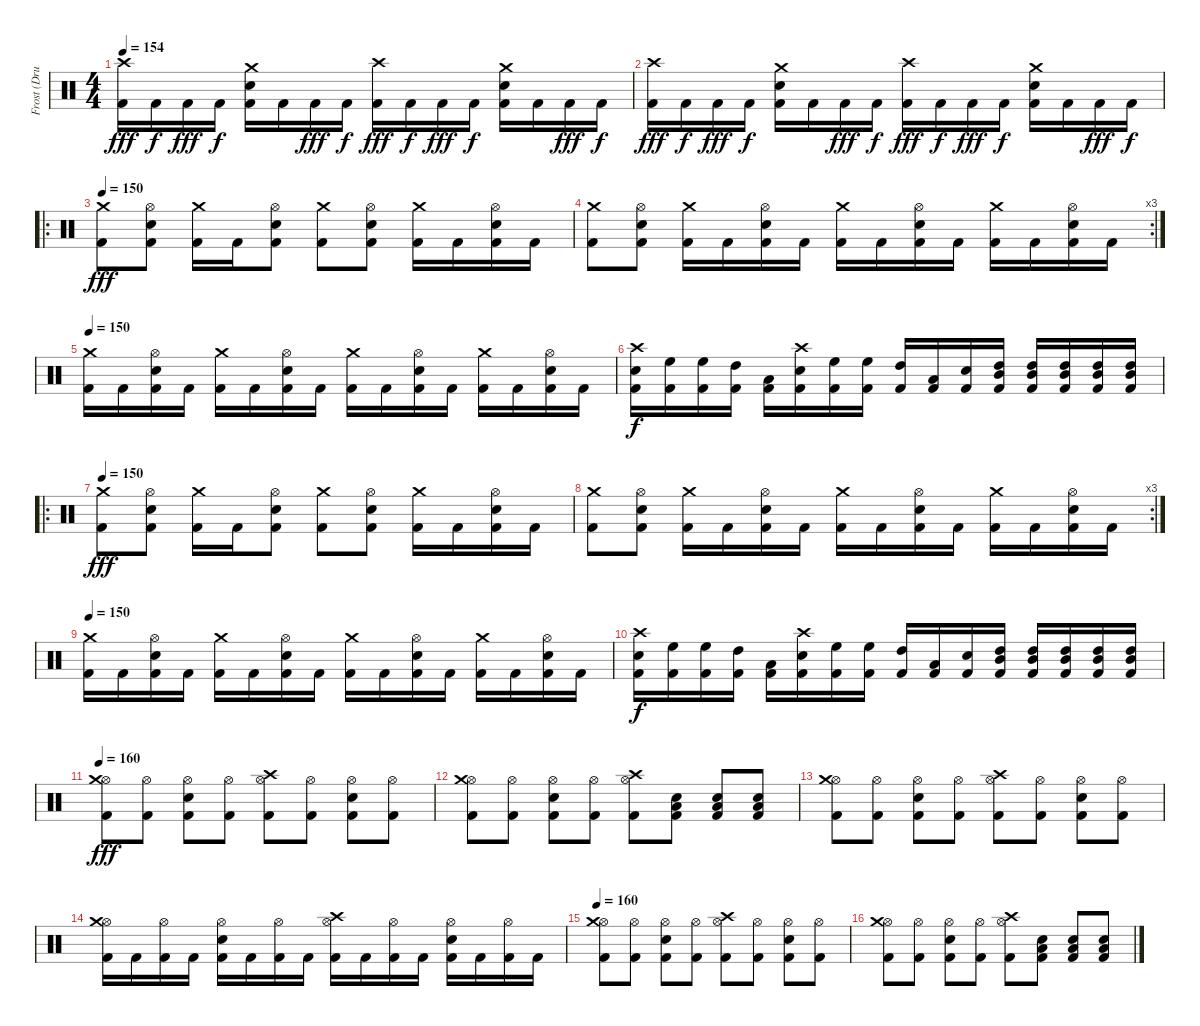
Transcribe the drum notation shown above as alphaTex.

\track ("Frost (Drums)" "Frost (Dru") {instrument percussion}
\staff {score}
\articulation defaults
\ts (4 4)
\tempo 154
\clef neutral
\ks c
("Kick (hit) 2" "Crash high (hit)").16{dy fff} "Kick (hit) 2".16{dy f} "Kick (hit) 2".16{dy fff} "Kick (hit) 2".16{dy f} ("Kick (hit) 2" "Snare (hit) 2" "Crash medium (hit)").16 "Kick (hit) 2".16 "Kick (hit) 2".16{dy fff} "Kick (hit) 2".16{dy f} ("Kick (hit) 2" "Crash high (hit)").16{dy fff} "Kick (hit) 2".16{dy f} "Kick (hit) 2".16{dy fff} "Kick (hit) 2".16{dy f} ("Kick (hit) 2" "Snare (hit) 2" "Crash medium (hit)").16 "Kick (hit) 2".16 "Kick (hit) 2".16{dy fff} "Kick (hit) 2".16{dy f} |
("Kick (hit) 2" "Crash high (hit)").16{dy fff} "Kick (hit) 2".16{dy f} "Kick (hit) 2".16{dy fff} "Kick (hit) 2".16{dy f} ("Kick (hit) 2" "Snare (hit) 2" "Crash medium (hit)").16 "Kick (hit) 2".16 "Kick (hit) 2".16{dy fff} "Kick (hit) 2".16{dy f} ("Kick (hit) 2" "Crash high (hit)").16{dy fff} "Kick (hit) 2".16{dy f} "Kick (hit) 2".16{dy fff} "Kick (hit) 2".16{dy f} ("Kick (hit) 2" "Snare (hit) 2" "Crash medium (hit)").16 "Kick (hit) 2".16 "Kick (hit) 2".16{dy fff} "Kick (hit) 2".16{dy f} |
\ro
\tempo 150
("Kick (hit) 2" "Crash medium (hit)").8{dy fff} ("Kick (hit) 2" "Snare (hit) 2" "Hi-Hat (open)").8 ("Kick (hit) 2" "Crash medium (hit)").16 "Kick (hit) 2".16 ("Kick (hit) 2" "Snare (hit) 2" "Hi-Hat (open)").8 ("Kick (hit) 2" "Crash medium (hit)").8 ("Kick (hit) 2" "Snare (hit) 2" "Hi-Hat (open)").8 ("Kick (hit) 2" "Crash medium (hit)").16 "Kick (hit) 2".16 ("Kick (hit) 2" "Snare (hit) 2" "Hi-Hat (open)").16 "Kick (hit) 2".16 |
\rc 3
("Kick (hit) 2" "Crash medium (hit)").8 ("Kick (hit) 2" "Snare (hit) 2" "Hi-Hat (open)").8 ("Kick (hit) 2" "Crash medium (hit)").16 "Kick (hit) 2".16 ("Kick (hit) 2" "Snare (hit) 2" "Hi-Hat (open)").16 "Kick (hit) 2".16 ("Kick (hit) 2" "Crash medium (hit)").16 "Kick (hit) 2".16 ("Kick (hit) 2" "Snare (hit) 2" "Hi-Hat (open)").16 "Kick (hit) 2".16 ("Kick (hit) 2" "Crash medium (hit)").16 "Kick (hit) 2".16 ("Kick (hit) 2" "Snare (hit) 2" "Hi-Hat (open)").16 "Kick (hit) 2".16 |
\tempo 150
("Kick (hit) 2" "Crash medium (hit)").16 "Kick (hit) 2".16 ("Kick (hit) 2" "Snare (hit) 2" "Hi-Hat (open)").16 "Kick (hit) 2".16 ("Kick (hit) 2" "Crash medium (hit)").16 "Kick (hit) 2".16 ("Kick (hit) 2" "Snare (hit) 2" "Hi-Hat (open)").16 "Kick (hit) 2".16 ("Kick (hit) 2" "Crash medium (hit)").16 "Kick (hit) 2".16 ("Kick (hit) 2" "Snare (hit) 2" "Hi-Hat (open)").16 "Kick (hit) 2".16 ("Kick (hit) 2" "Crash medium (hit)").16 "Kick (hit) 2".16 ("Kick (hit) 2" "Snare (hit) 2" "Hi-Hat (open)").16 "Kick (hit) 2".16 |
("Crash high (hit)" "Snare (hit) 2" "Kick (hit) 2").16{dy f} ("High Floor Tom (hit)" "Kick (hit) 2").16 ("High Floor Tom (hit)" "Kick (hit) 2").16 ("High Tom (hit)" "Kick (hit) 2").16 ("Low Tom (hit)" "Kick (hit) 2").16 ("Crash high (hit)" "Snare (hit) 2" "Kick (hit) 2").16 ("High Floor Tom (hit)" "Kick (hit) 2").16 ("High Floor Tom (hit)" "Kick (hit) 2").16 ("High Tom (hit)" "Kick (hit) 2").16 ("Low Tom (hit)" "Kick (hit) 2").16 ("Snare (hit) 2" "Kick (hit) 2").16 ("High Tom (hit)" "Mid Tom (hit)" "Kick (hit) 2").16 ("High Tom (hit)" "Mid Tom (hit)" "Kick (hit) 2").16 ("High Tom (hit)" "Mid Tom (hit)" "Kick (hit) 2").16 ("High Tom (hit)" "Mid Tom (hit)" "Kick (hit) 2").16 ("High Tom (hit)" "Mid Tom (hit)" "Kick (hit) 2").16 |
\ro
\tempo 150
("Kick (hit) 2" "Crash medium (hit)").8{dy fff} ("Kick (hit) 2" "Snare (hit) 2" "Hi-Hat (open)").8 ("Kick (hit) 2" "Crash medium (hit)").16 "Kick (hit) 2".16 ("Kick (hit) 2" "Snare (hit) 2" "Hi-Hat (open)").8 ("Kick (hit) 2" "Crash medium (hit)").8 ("Kick (hit) 2" "Snare (hit) 2" "Hi-Hat (open)").8 ("Kick (hit) 2" "Crash medium (hit)").16 "Kick (hit) 2".16 ("Kick (hit) 2" "Snare (hit) 2" "Hi-Hat (open)").16 "Kick (hit) 2".16 |
\rc 3
("Kick (hit) 2" "Crash medium (hit)").8 ("Kick (hit) 2" "Snare (hit) 2" "Hi-Hat (open)").8 ("Kick (hit) 2" "Crash medium (hit)").16 "Kick (hit) 2".16 ("Kick (hit) 2" "Snare (hit) 2" "Hi-Hat (open)").16 "Kick (hit) 2".16 ("Kick (hit) 2" "Crash medium (hit)").16 "Kick (hit) 2".16 ("Kick (hit) 2" "Snare (hit) 2" "Hi-Hat (open)").16 "Kick (hit) 2".16 ("Kick (hit) 2" "Crash medium (hit)").16 "Kick (hit) 2".16 ("Kick (hit) 2" "Snare (hit) 2" "Hi-Hat (open)").16 "Kick (hit) 2".16 |
\tempo 150
("Kick (hit) 2" "Crash medium (hit)").16 "Kick (hit) 2".16 ("Kick (hit) 2" "Snare (hit) 2" "Hi-Hat (open)").16 "Kick (hit) 2".16 ("Kick (hit) 2" "Crash medium (hit)").16 "Kick (hit) 2".16 ("Kick (hit) 2" "Snare (hit) 2" "Hi-Hat (open)").16 "Kick (hit) 2".16 ("Kick (hit) 2" "Crash medium (hit)").16 "Kick (hit) 2".16 ("Kick (hit) 2" "Snare (hit) 2" "Hi-Hat (open)").16 "Kick (hit) 2".16 ("Kick (hit) 2" "Crash medium (hit)").16 "Kick (hit) 2".16 ("Kick (hit) 2" "Snare (hit) 2" "Hi-Hat (open)").16 "Kick (hit) 2".16 |
("Crash high (hit)" "Snare (hit) 2" "Kick (hit) 2").16{dy f} ("High Floor Tom (hit)" "Kick (hit) 2").16 ("High Floor Tom (hit)" "Kick (hit) 2").16 ("High Tom (hit)" "Kick (hit) 2").16 ("Low Tom (hit)" "Kick (hit) 2").16 ("Crash high (hit)" "Snare (hit) 2" "Kick (hit) 2").16 ("High Floor Tom (hit)" "Kick (hit) 2").16 ("High Floor Tom (hit)" "Kick (hit) 2").16 ("High Tom (hit)" "Kick (hit) 2").16 ("Low Tom (hit)" "Kick (hit) 2").16 ("Snare (hit) 2" "Kick (hit) 2").16 ("High Tom (hit)" "Mid Tom (hit)" "Kick (hit) 2").16 ("High Tom (hit)" "Mid Tom (hit)" "Kick (hit) 2").16 ("High Tom (hit)" "Mid Tom (hit)" "Kick (hit) 2").16 ("High Tom (hit)" "Mid Tom (hit)" "Kick (hit) 2").16 ("High Tom (hit)" "Mid Tom (hit)" "Kick (hit) 2").16 |
\tempo 160
("Hi-Hat (open)" "Crash medium (hit)" "Kick (hit) 2").8{dy fff} ("Hi-Hat (open)" "Kick (hit) 2").8 ("Hi-Hat (open)" "Snare (hit) 2" "Kick (hit) 2").8 ("Hi-Hat (open)" "Kick (hit) 2").8 ("Hi-Hat (open)" "Crash high (hit)" "Kick (hit) 2").8 ("Hi-Hat (open)" "Kick (hit) 2").8 ("Hi-Hat (open)" "Snare (hit) 2" "Kick (hit) 2").8 ("Hi-Hat (open)" "Kick (hit) 2").8 |
("Hi-Hat (open)" "Crash medium (hit)" "Kick (hit) 2").8 ("Hi-Hat (open)" "Kick (hit) 2").8 ("Hi-Hat (open)" "Snare (hit) 2" "Kick (hit) 2").8 ("Hi-Hat (open)" "Kick (hit) 2").8 ("Hi-Hat (open)" "Crash high (hit)" "Kick (hit) 2").8 ("Low Tom (hit)" "Snare (hit) 2" "Kick (hit) 2").8 ("Low Tom (hit)" "Snare (hit) 2" "Kick (hit) 2").8 ("Low Tom (hit)" "Snare (hit) 2" "Kick (hit) 2").8 |
("Hi-Hat (open)" "Crash medium (hit)" "Kick (hit) 2").8 ("Hi-Hat (open)" "Kick (hit) 2").8 ("Hi-Hat (open)" "Snare (hit) 2" "Kick (hit) 2").8 ("Hi-Hat (open)" "Kick (hit) 2").8 ("Hi-Hat (open)" "Crash high (hit)" "Kick (hit) 2").8 ("Hi-Hat (open)" "Kick (hit) 2").8 ("Hi-Hat (open)" "Snare (hit) 2" "Kick (hit) 2").8 ("Hi-Hat (open)" "Kick (hit) 2").8 |
("Hi-Hat (open)" "Crash medium (hit)" "Kick (hit) 2").16 "Kick (hit) 2".16 ("Hi-Hat (open)" "Kick (hit) 2").16 "Kick (hit) 2".16 ("Hi-Hat (open)" "Snare (hit) 2" "Kick (hit) 2").16 "Kick (hit) 2".16 ("Hi-Hat (open)" "Kick (hit) 2").16 "Kick (hit) 2".16 ("Hi-Hat (open)" "Crash high (hit)" "Kick (hit) 2").16 "Kick (hit) 2".16 ("Hi-Hat (open)" "Kick (hit) 2").16 "Kick (hit) 2".16 ("Hi-Hat (open)" "Snare (hit) 2" "Kick (hit) 2").16 "Kick (hit) 2".16 ("Hi-Hat (open)" "Kick (hit) 2").16 "Kick (hit) 2".16 |
\tempo 160
("Hi-Hat (open)" "Crash medium (hit)" "Kick (hit) 2").8 ("Hi-Hat (open)" "Kick (hit) 2").8 ("Hi-Hat (open)" "Snare (hit) 2" "Kick (hit) 2").8 ("Hi-Hat (open)" "Kick (hit) 2").8 ("Hi-Hat (open)" "Crash high (hit)" "Kick (hit) 2").8 ("Hi-Hat (open)" "Kick (hit) 2").8 ("Hi-Hat (open)" "Snare (hit) 2" "Kick (hit) 2").8 ("Hi-Hat (open)" "Kick (hit) 2").8 |
("Hi-Hat (open)" "Crash medium (hit)" "Kick (hit) 2").8 ("Hi-Hat (open)" "Kick (hit) 2").8 ("Hi-Hat (open)" "Snare (hit) 2" "Kick (hit) 2").8 ("Hi-Hat (open)" "Kick (hit) 2").8 ("Hi-Hat (open)" "Crash high (hit)" "Kick (hit) 2").8 ("Low Tom (hit)" "Snare (hit) 2" "Kick (hit) 2").8 ("Low Tom (hit)" "Snare (hit) 2" "Kick (hit) 2").8 ("Low Tom (hit)" "Snare (hit) 2" "Kick (hit) 2").8
